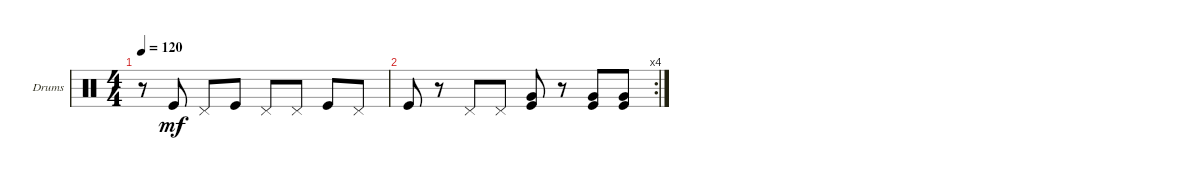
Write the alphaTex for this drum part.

\bracketExtendMode groupsimilarinstruments
\firstSystemTrackNameOrientation horizontal
\otherSystemsTrackNameOrientation horizontal
\track ("Drumkit" "Drums") {instrument percussion}
\staff {score}
\articulation defaults
\ts (4 4)
\tempo 120
\clef neutral
\ks c
r.8{dy mf} "Kick (hit)".8 "Pedal Hi-Hat (hit)".8 "Kick (hit)".8 "Pedal Hi-Hat (hit)".8 "Pedal Hi-Hat (hit)".8 "Kick (hit)".8 "Pedal Hi-Hat (hit)".8 |
\rc 4 "Kick (hit)".8
r.8 "Pedal Hi-Hat (hit)".8 "Pedal Hi-Hat (hit)".8 ("Kick (hit)" "Very Low Tom (hit)").8 r.8 ("Kick (hit)" "Very Low Tom (hit)").8 ("Kick (hit)" "Very Low Tom (hit)").8
